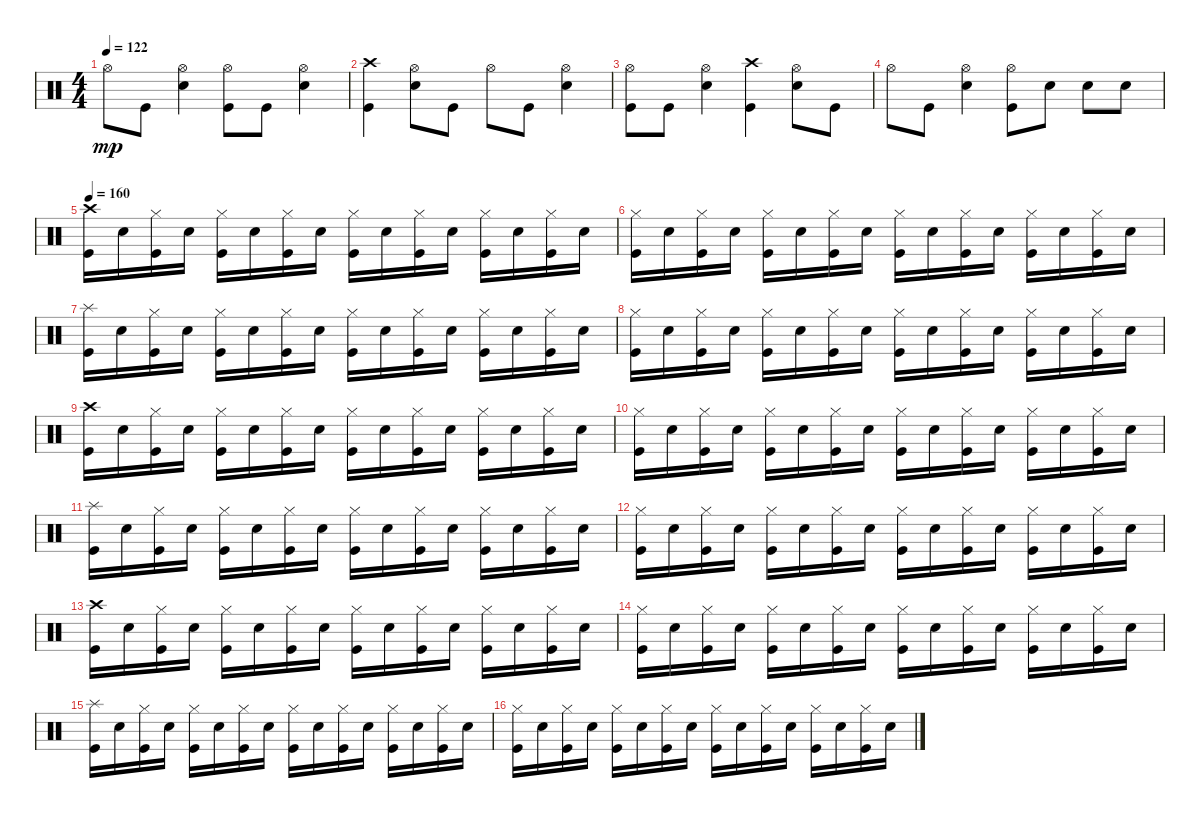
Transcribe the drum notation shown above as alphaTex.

\track "" {instrument percussion}
\staff {score}
\articulation defaults
\ts (4 4)
\tempo 122
\clef neutral
\ks c "Hi-Hat (open)".8{dy mp} "Kick (hit)".8
("Snare (hit) 2" "Hi-Hat (open)").4 ("Hi-Hat (open)" "Kick (hit)").8 "Kick (hit)".8 ("Snare (hit) 2" "Hi-Hat (open)").4 |
("Kick (hit)" "Crash high (hit)").4 ("Snare (hit) 2" "Hi-Hat (open)").8 "Kick (hit)".8 "Hi-Hat (open)".8 "Kick (hit)".8 ("Snare (hit) 2" "Hi-Hat (open)").4 |
("Hi-Hat (open)" "Kick (hit)").8 "Kick (hit)".8 ("Snare (hit) 2" "Hi-Hat (open)").4 ("Kick (hit)" "Crash high (hit)").4 ("Snare (hit) 2" "Hi-Hat (open)").8 "Kick (hit)".8 |
"Hi-Hat (open)".8 "Kick (hit)".8 ("Snare (hit) 2" "Hi-Hat (open)").4 ("Hi-Hat (open)" "Kick (hit)").8 "Snare (hit) 2".8 "Snare (hit) 2".8 "Snare (hit) 2".8 |
\tempo 160
("Kick (hit)" "Crash high (hit)").16 "Snare (hit) 2".16 ("Kick (hit)" "Hi-Hat (closed)").16 "Snare (hit) 2".16 ("Kick (hit)" "Hi-Hat (closed)").16 "Snare (hit) 2".16 ("Kick (hit)" "Hi-Hat (closed)").16 "Snare (hit) 2".16 ("Kick (hit)" "Hi-Hat (closed)").16 "Snare (hit) 2".16 ("Kick (hit)" "Hi-Hat (closed)").16 "Snare (hit) 2".16 ("Kick (hit)" "Hi-Hat (closed)").16 "Snare (hit) 2".16 ("Kick (hit)" "Hi-Hat (closed)").16 "Snare (hit) 2".16 |
("Kick (hit)" "Hi-Hat (closed)").16 "Snare (hit) 2".16 ("Kick (hit)" "Hi-Hat (closed)").16 "Snare (hit) 2".16 ("Kick (hit)" "Hi-Hat (closed)").16 "Snare (hit) 2".16 ("Kick (hit)" "Hi-Hat (closed)").16 "Snare (hit) 2".16 ("Kick (hit)" "Hi-Hat (closed)").16 "Snare (hit) 2".16 ("Kick (hit)" "Hi-Hat (closed)").16 "Snare (hit) 2".16 ("Kick (hit)" "Hi-Hat (closed)").16 "Snare (hit) 2".16 ("Kick (hit)" "Hi-Hat (closed)").16 "Snare (hit) 2".16 |
("Kick (hit)" "Splash (hit)").16 "Snare (hit) 2".16 ("Kick (hit)" "Hi-Hat (closed)").16 "Snare (hit) 2".16 ("Kick (hit)" "Hi-Hat (closed)").16 "Snare (hit) 2".16 ("Kick (hit)" "Hi-Hat (closed)").16 "Snare (hit) 2".16 ("Kick (hit)" "Hi-Hat (closed)").16 "Snare (hit) 2".16 ("Kick (hit)" "Hi-Hat (closed)").16 "Snare (hit) 2".16 ("Kick (hit)" "Hi-Hat (closed)").16 "Snare (hit) 2".16 ("Kick (hit)" "Hi-Hat (closed)").16 "Snare (hit) 2".16 |
("Kick (hit)" "Hi-Hat (closed)").16 "Snare (hit) 2".16 ("Kick (hit)" "Hi-Hat (closed)").16 "Snare (hit) 2".16 ("Kick (hit)" "Hi-Hat (closed)").16 "Snare (hit) 2".16 ("Kick (hit)" "Hi-Hat (closed)").16 "Snare (hit) 2".16 ("Kick (hit)" "Hi-Hat (closed)").16 "Snare (hit) 2".16 ("Kick (hit)" "Hi-Hat (closed)").16 "Snare (hit) 2".16 ("Kick (hit)" "Hi-Hat (closed)").16 "Snare (hit) 2".16 ("Kick (hit)" "Hi-Hat (closed)").16 "Snare (hit) 2".16 |
("Kick (hit)" "Crash high (hit)").16 "Snare (hit) 2".16 ("Kick (hit)" "Hi-Hat (closed)").16 "Snare (hit) 2".16 ("Kick (hit)" "Hi-Hat (closed)").16 "Snare (hit) 2".16 ("Kick (hit)" "Hi-Hat (closed)").16 "Snare (hit) 2".16 ("Kick (hit)" "Hi-Hat (closed)").16 "Snare (hit) 2".16 ("Kick (hit)" "Hi-Hat (closed)").16 "Snare (hit) 2".16 ("Kick (hit)" "Hi-Hat (closed)").16 "Snare (hit) 2".16 ("Kick (hit)" "Hi-Hat (closed)").16 "Snare (hit) 2".16 |
("Kick (hit)" "Hi-Hat (closed)").16 "Snare (hit) 2".16 ("Kick (hit)" "Hi-Hat (closed)").16 "Snare (hit) 2".16 ("Kick (hit)" "Hi-Hat (closed)").16 "Snare (hit) 2".16 ("Kick (hit)" "Hi-Hat (closed)").16 "Snare (hit) 2".16 ("Kick (hit)" "Hi-Hat (closed)").16 "Snare (hit) 2".16 ("Kick (hit)" "Hi-Hat (closed)").16 "Snare (hit) 2".16 ("Kick (hit)" "Hi-Hat (closed)").16 "Snare (hit) 2".16 ("Kick (hit)" "Hi-Hat (closed)").16 "Snare (hit) 2".16 |
("Kick (hit)" "Splash (hit)").16 "Snare (hit) 2".16 ("Kick (hit)" "Hi-Hat (closed)").16 "Snare (hit) 2".16 ("Kick (hit)" "Hi-Hat (closed)").16 "Snare (hit) 2".16 ("Kick (hit)" "Hi-Hat (closed)").16 "Snare (hit) 2".16 ("Kick (hit)" "Hi-Hat (closed)").16 "Snare (hit) 2".16 ("Kick (hit)" "Hi-Hat (closed)").16 "Snare (hit) 2".16 ("Kick (hit)" "Hi-Hat (closed)").16 "Snare (hit) 2".16 ("Kick (hit)" "Hi-Hat (closed)").16 "Snare (hit) 2".16 |
("Kick (hit)" "Hi-Hat (closed)").16 "Snare (hit) 2".16 ("Kick (hit)" "Hi-Hat (closed)").16 "Snare (hit) 2".16 ("Kick (hit)" "Hi-Hat (closed)").16 "Snare (hit) 2".16 ("Kick (hit)" "Hi-Hat (closed)").16 "Snare (hit) 2".16 ("Kick (hit)" "Hi-Hat (closed)").16 "Snare (hit) 2".16 ("Kick (hit)" "Hi-Hat (closed)").16 "Snare (hit) 2".16 ("Kick (hit)" "Hi-Hat (closed)").16 "Snare (hit) 2".16 ("Kick (hit)" "Hi-Hat (closed)").16 "Snare (hit) 2".16 |
("Kick (hit)" "Crash high (hit)").16 "Snare (hit) 2".16 ("Kick (hit)" "Hi-Hat (closed)").16 "Snare (hit) 2".16 ("Kick (hit)" "Hi-Hat (closed)").16 "Snare (hit) 2".16 ("Kick (hit)" "Hi-Hat (closed)").16 "Snare (hit) 2".16 ("Kick (hit)" "Hi-Hat (closed)").16 "Snare (hit) 2".16 ("Kick (hit)" "Hi-Hat (closed)").16 "Snare (hit) 2".16 ("Kick (hit)" "Hi-Hat (closed)").16 "Snare (hit) 2".16 ("Kick (hit)" "Hi-Hat (closed)").16 "Snare (hit) 2".16 |
("Kick (hit)" "Hi-Hat (closed)").16 "Snare (hit) 2".16 ("Kick (hit)" "Hi-Hat (closed)").16 "Snare (hit) 2".16 ("Kick (hit)" "Hi-Hat (closed)").16 "Snare (hit) 2".16 ("Kick (hit)" "Hi-Hat (closed)").16 "Snare (hit) 2".16 ("Kick (hit)" "Hi-Hat (closed)").16 "Snare (hit) 2".16 ("Kick (hit)" "Hi-Hat (closed)").16 "Snare (hit) 2".16 ("Kick (hit)" "Hi-Hat (closed)").16 "Snare (hit) 2".16 ("Kick (hit)" "Hi-Hat (closed)").16 "Snare (hit) 2".16 |
("Kick (hit)" "Splash (hit)").16 "Snare (hit) 2".16 ("Kick (hit)" "Hi-Hat (closed)").16 "Snare (hit) 2".16 ("Kick (hit)" "Hi-Hat (closed)").16 "Snare (hit) 2".16 ("Kick (hit)" "Hi-Hat (closed)").16 "Snare (hit) 2".16 ("Kick (hit)" "Hi-Hat (closed)").16 "Snare (hit) 2".16 ("Kick (hit)" "Hi-Hat (closed)").16 "Snare (hit) 2".16 ("Kick (hit)" "Hi-Hat (closed)").16 "Snare (hit) 2".16 ("Kick (hit)" "Hi-Hat (closed)").16 "Snare (hit) 2".16 |
("Kick (hit)" "Hi-Hat (closed)").16 "Snare (hit) 2".16 ("Kick (hit)" "Hi-Hat (closed)").16 "Snare (hit) 2".16 ("Kick (hit)" "Hi-Hat (closed)").16 "Snare (hit) 2".16 ("Kick (hit)" "Hi-Hat (closed)").16 "Snare (hit) 2".16 ("Kick (hit)" "Hi-Hat (closed)").16 "Snare (hit) 2".16 ("Kick (hit)" "Hi-Hat (closed)").16 "Snare (hit) 2".16 ("Kick (hit)" "Hi-Hat (closed)").16 "Snare (hit) 2".16 ("Kick (hit)" "Hi-Hat (closed)").16 "Snare (hit) 2".16
